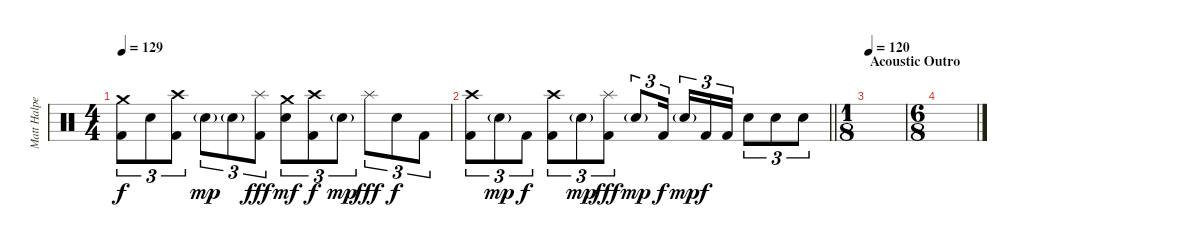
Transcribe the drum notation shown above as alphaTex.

\track ("Matt Halpern - Drums" "Matt Halpe") {instrument percussion}
\staff {score}
\articulation defaults
\ts (4 4)
\tempo 129
\clef neutral
\ks c
("Crash medium (hit)" "Kick (hit) 2").8{tu (3 2) dy f} "Electric Snare (hit)".8{tu (3 2)} ("Crash high (hit)" "Kick (hit) 2").8{tu (3 2)} "Electric Snare (hit)"{g}.8{tu (3 2) dy mp} "Electric Snare (hit)"{g}.8{tu (3 2)} ("Splash (hit)" "Kick (hit) 2").8{tu (3 2) dy fff} ("Crash medium (hit)" "Electric Snare (hit)").8{tu (3 2) dy mf} ("Crash high (hit)" "Kick (hit) 2").8{tu (3 2) dy f} "Electric Snare (hit)"{g}.8{tu (3 2) dy mp} "Splash (hit)".8{tu (3 2) dy fff} "Electric Snare (hit)".8{tu (3 2) dy f} "Kick (hit) 2".8{tu (3 2)} |
\barLineRight lightlight
("Crash high (hit)" "Kick (hit) 2").8{tu (3 2)} "Electric Snare (hit)"{g}.8{tu (3 2) dy mp} "Kick (hit) 2".8{tu (3 2) dy f} ("Crash high (hit)" "Kick (hit) 2").8{tu (3 2)} "Electric Snare (hit)"{g}.8{tu (3 2) dy mp} ("Splash (hit)" "Kick (hit) 2").8{tu (3 2) dy fff} "Electric Snare (hit)"{g}.8{tu (3 2) dy mp} "Kick (hit) 2".16{tu (3 2) dy f beam splitsecondary} "Electric Snare (hit)"{g}.16{tu (3 2) dy mp} "Kick (hit) 2".16{tu (3 2) dy f} "Kick (hit) 2".16{tu (3 2)} "Electric Snare (hit)".8{tu (3 2)} "Electric Snare (hit)".8{tu (3 2)} "Electric Snare (hit)".8{tu (3 2)} |
\ts (1 8)
\section ("" "Acoustic Outro")
\tempo 120
|
\ts (6 8)
